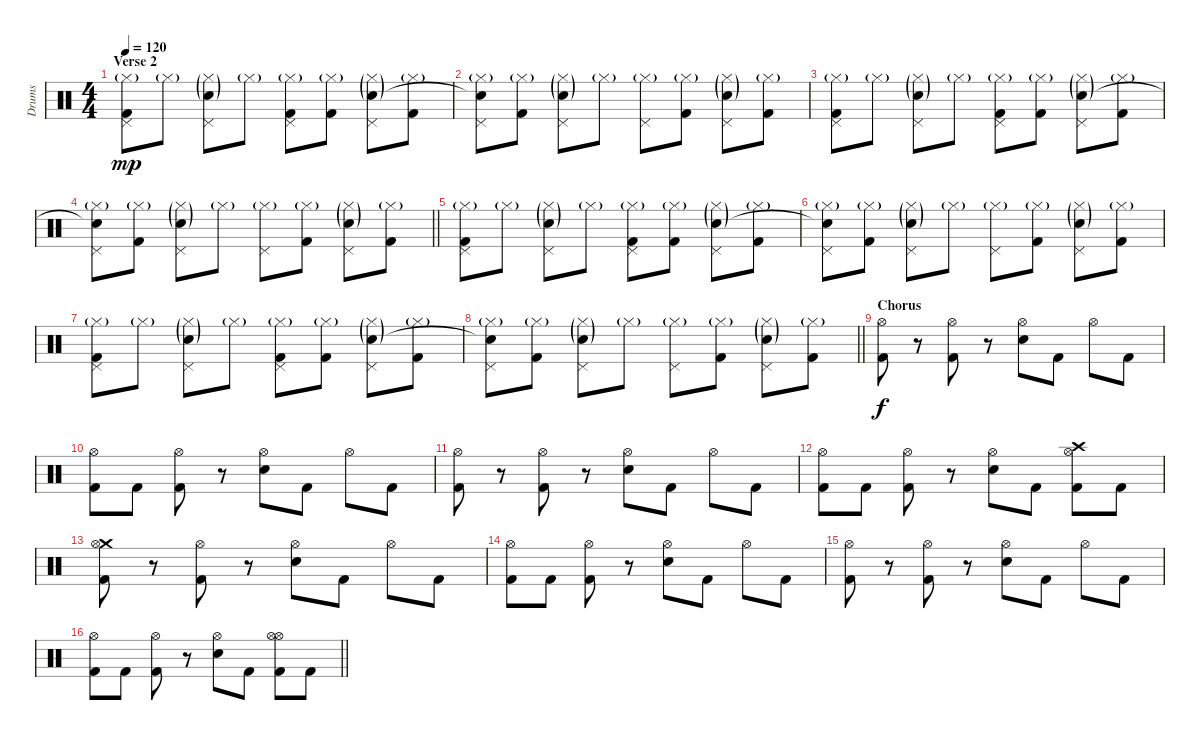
\track ("Drums" "Drums") {instrument percussion}
\staff {score}
\articulation defaults
\ts (4 4)
\section ("" "Verse 2")
\tempo 120
\clef neutral
\ks c
("Pedal Hi-Hat (hit)" "Hi-Hat (closed)"{g} "Kick (hit) 2").8{dy mp} "Hi-Hat (closed)"{g}.8 ("Pedal Hi-Hat (hit)" "Hi-Hat (closed)"{g} "Snare (hit) 2"{g}).8 "Hi-Hat (closed)"{g}.8 ("Pedal Hi-Hat (hit)" "Hi-Hat (closed)"{g} "Kick (hit) 2").8 ("Hi-Hat (closed)"{g} "Kick (hit) 2").8 ("Pedal Hi-Hat (hit)" "Hi-Hat (closed)"{g} "Snare (hit) 2"{g}).8 ("Hi-Hat (closed)"{g} "Kick (hit) 2").8 |
("Pedal Hi-Hat (hit)" "Hi-Hat (closed)"{g} "Snare (hit)"{t}).8 ("Hi-Hat (closed)"{g} "Kick (hit) 2").8 ("Pedal Hi-Hat (hit)" "Hi-Hat (closed)"{g} "Snare (hit) 2"{g}).8 "Hi-Hat (closed)"{g}.8 ("Pedal Hi-Hat (hit)" "Hi-Hat (closed)"{g}).8 ("Hi-Hat (closed)"{g} "Kick (hit) 2").8 ("Pedal Hi-Hat (hit)" "Hi-Hat (closed)"{g} "Snare (hit) 2"{g}).8 ("Hi-Hat (closed)"{g} "Kick (hit) 2").8 |
("Pedal Hi-Hat (hit)" "Hi-Hat (closed)"{g} "Kick (hit) 2").8 "Hi-Hat (closed)"{g}.8 ("Pedal Hi-Hat (hit)" "Hi-Hat (closed)"{g} "Snare (hit) 2"{g}).8 "Hi-Hat (closed)"{g}.8 ("Pedal Hi-Hat (hit)" "Hi-Hat (closed)"{g} "Kick (hit) 2").8 ("Hi-Hat (closed)"{g} "Kick (hit) 2").8 ("Pedal Hi-Hat (hit)" "Hi-Hat (closed)"{g} "Snare (hit) 2"{g}).8 ("Hi-Hat (closed)"{g} "Kick (hit) 2").8 |
\barLineRight lightlight
("Pedal Hi-Hat (hit)" "Hi-Hat (closed)"{g} "Snare (hit)"{t}).8 ("Hi-Hat (closed)"{g} "Kick (hit) 2").8 ("Pedal Hi-Hat (hit)" "Hi-Hat (closed)"{g} "Snare (hit) 2"{g}).8 "Hi-Hat (closed)"{g}.8 ("Pedal Hi-Hat (hit)" "Hi-Hat (closed)"{g}).8 ("Hi-Hat (closed)"{g} "Kick (hit) 2").8 ("Pedal Hi-Hat (hit)" "Hi-Hat (closed)"{g} "Snare (hit) 2"{g}).8 ("Hi-Hat (closed)"{g} "Kick (hit) 2").8 |
("Pedal Hi-Hat (hit)" "Hi-Hat (closed)"{g} "Kick (hit) 2").8 "Hi-Hat (closed)"{g}.8 ("Pedal Hi-Hat (hit)" "Hi-Hat (closed)"{g} "Snare (hit) 2"{g}).8 "Hi-Hat (closed)"{g}.8 ("Pedal Hi-Hat (hit)" "Hi-Hat (closed)"{g} "Kick (hit) 2").8 ("Hi-Hat (closed)"{g} "Kick (hit) 2").8 ("Pedal Hi-Hat (hit)" "Hi-Hat (closed)"{g} "Snare (hit) 2"{g}).8 ("Hi-Hat (closed)"{g} "Kick (hit) 2").8 |
("Pedal Hi-Hat (hit)" "Hi-Hat (closed)"{g} "Snare (hit)"{t}).8 ("Hi-Hat (closed)"{g} "Kick (hit) 2").8 ("Pedal Hi-Hat (hit)" "Hi-Hat (closed)"{g} "Snare (hit) 2"{g}).8 "Hi-Hat (closed)"{g}.8 ("Pedal Hi-Hat (hit)" "Hi-Hat (closed)"{g}).8 ("Hi-Hat (closed)"{g} "Kick (hit) 2").8 ("Pedal Hi-Hat (hit)" "Hi-Hat (closed)"{g} "Snare (hit) 2"{g}).8 ("Hi-Hat (closed)"{g} "Kick (hit) 2").8 |
("Pedal Hi-Hat (hit)" "Hi-Hat (closed)"{g} "Kick (hit) 2").8 "Hi-Hat (closed)"{g}.8 ("Pedal Hi-Hat (hit)" "Hi-Hat (closed)"{g} "Snare (hit) 2"{g}).8 "Hi-Hat (closed)"{g}.8 ("Pedal Hi-Hat (hit)" "Hi-Hat (closed)"{g} "Kick (hit) 2").8 ("Hi-Hat (closed)"{g} "Kick (hit) 2").8 ("Pedal Hi-Hat (hit)" "Hi-Hat (closed)"{g} "Snare (hit) 2"{g}).8 ("Hi-Hat (closed)"{g} "Kick (hit) 2").8 |
\barLineRight lightlight
("Pedal Hi-Hat (hit)" "Hi-Hat (closed)"{g} "Snare (hit)"{t}).8 ("Hi-Hat (closed)"{g} "Kick (hit) 2").8 ("Pedal Hi-Hat (hit)" "Hi-Hat (closed)"{g} "Snare (hit) 2"{g}).8 "Hi-Hat (closed)"{g}.8 ("Pedal Hi-Hat (hit)" "Hi-Hat (closed)"{g}).8 ("Hi-Hat (closed)"{g} "Kick (hit) 2").8 ("Pedal Hi-Hat (hit)" "Hi-Hat (closed)"{g} "Snare (hit) 2"{g}).8 ("Hi-Hat (closed)"{g} "Kick (hit) 2").8 |
\section ("" "Chorus")
("Hi-Hat (open)" "Kick (hit) 2").8{dy f} r.8 ("Hi-Hat (open)" "Kick (hit) 2").8 r.8 ("Hi-Hat (open)" "Snare (hit) 2").8 "Kick (hit) 2".8 "Hi-Hat (open)".8 "Kick (hit) 2".8 |
("Hi-Hat (open)" "Kick (hit) 2").8 "Kick (hit) 2".8 ("Hi-Hat (open)" "Kick (hit) 2").8 r.8 ("Hi-Hat (open)" "Snare (hit) 2").8 "Kick (hit) 2".8 "Hi-Hat (open)".8 "Kick (hit) 2".8 |
("Hi-Hat (open)" "Kick (hit) 2").8 r.8 ("Hi-Hat (open)" "Kick (hit) 2").8 r.8 ("Hi-Hat (open)" "Snare (hit) 2").8 "Kick (hit) 2".8 "Hi-Hat (open)".8 "Kick (hit) 2".8 |
("Hi-Hat (open)" "Kick (hit) 2").8 "Kick (hit) 2".8 ("Hi-Hat (open)" "Kick (hit) 2").8 r.8 ("Hi-Hat (open)" "Snare (hit) 2").8 "Kick (hit) 2".8 ("Crash high (hit)" "Hi-Hat (open)" "Kick (hit) 2").8 "Kick (hit) 2".8 |
("Crash medium (hit)" "Hi-Hat (open)" "Kick (hit) 2").8 r.8 ("Hi-Hat (open)" "Kick (hit) 2").8 r.8 ("Hi-Hat (open)" "Snare (hit) 2").8 "Kick (hit) 2".8 "Hi-Hat (open)".8 "Kick (hit) 2".8 |
("Hi-Hat (open)" "Kick (hit) 2").8 "Kick (hit) 2".8 ("Hi-Hat (open)" "Kick (hit) 2").8 r.8 ("Hi-Hat (open)" "Snare (hit) 2").8 "Kick (hit) 2".8 "Hi-Hat (open)".8 "Kick (hit) 2".8 |
("Hi-Hat (open)" "Kick (hit) 2").8 r.8 ("Hi-Hat (open)" "Kick (hit) 2").8 r.8 ("Hi-Hat (open)" "Snare (hit) 2").8 "Kick (hit) 2".8 "Hi-Hat (open)".8 "Kick (hit) 2".8 |
\barLineRight lightlight
("Hi-Hat (open)" "Kick (hit) 2").8 "Kick (hit) 2".8 ("Hi-Hat (open)" "Kick (hit) 2").8 r.8 ("Hi-Hat (open)" "Snare (hit) 2").8 "Kick (hit) 2".8 ("Hi-Hat (open)" "Hi-Hat (open)" "Kick (hit) 2").8 "Kick (hit) 2".8
